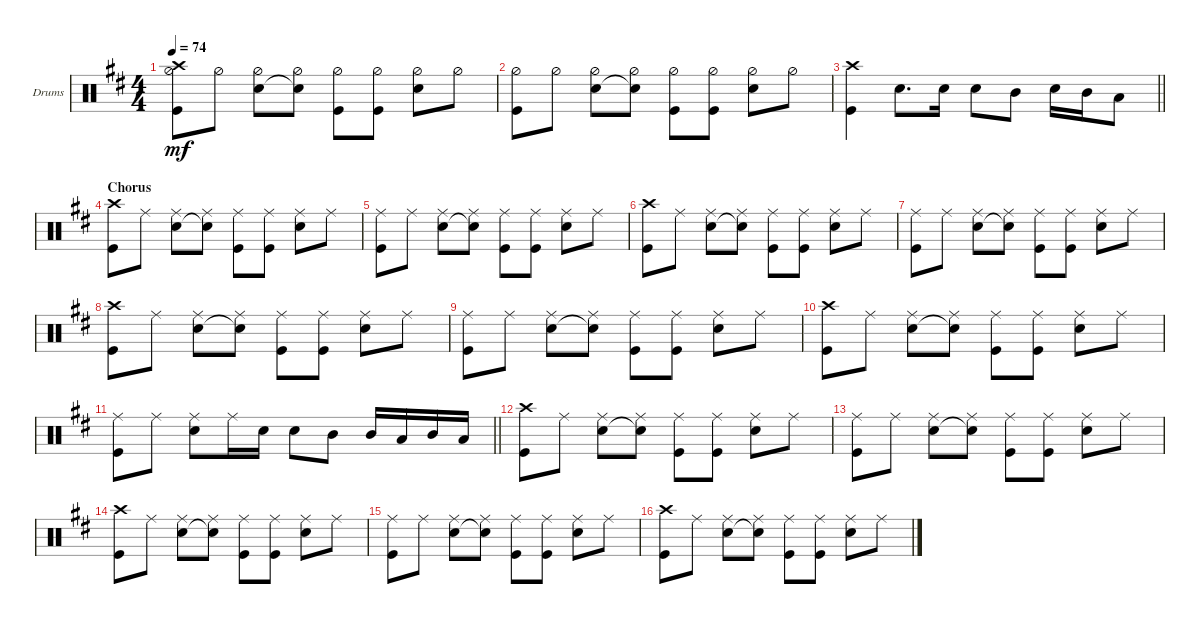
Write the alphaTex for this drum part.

\bracketExtendMode groupsimilarinstruments
\firstSystemTrackNameOrientation horizontal
\otherSystemsTrackNameOrientation horizontal
\track ("Drumkit" "Drums") {instrument percussion}
\staff {score}
\articulation defaults
\ts (4 4)
\tempo 74
\clef neutral
\scale
0.333333
\ks d
("Kick (hit)" "Hi-Hat (half)" "Crash high (hit)").8{dy mf} "Hi-Hat (half)".8 ("Snare (hit) 2" "Hi-Hat (half)").8 ("Snare (hit) 2"{t} "Hi-Hat (half)").8 ("Kick (hit)" "Hi-Hat (half)").8 ("Kick (hit)" "Hi-Hat (half)").8 ("Snare (hit) 2" "Hi-Hat (half)").8 "Hi-Hat (half)".8 |
\scale
0.333333 ("Kick (hit)" "Hi-Hat (half)").8 "Hi-Hat (half)".8 ("Snare (hit) 2" "Hi-Hat (half)").8 ("Snare (hit) 2"{t} "Hi-Hat (half)").8 ("Kick (hit)" "Hi-Hat (half)").8 ("Kick (hit)" "Hi-Hat (half)").8 ("Snare (hit) 2" "Hi-Hat (half)").8 "Hi-Hat (half)".8 |
\scale
0.333333
\barLineRight lightlight
("Kick (hit)" "Crash high (hit)").4 "Snare (hit) 2".8{d} "Snare (hit) 2".16 "Snare (hit) 2".8 "Mid Tom (hit)".8 "Snare (hit) 2".16 "Mid Tom (hit)".16 "Low Tom (hit)".8 |
\section ("" "Chorus")
\scale
0.333333 ("Kick (hit)" "Crash high (hit)").8 "Ride (middle)".8 ("Snare (hit) 2" "Ride (middle)").8 ("Snare (hit) 2"{t} "Ride (middle)").8 ("Kick (hit)" "Ride (middle)").8 ("Kick (hit)" "Ride (middle)").8 ("Snare (hit) 2" "Ride (middle)").8 "Ride (middle)".8 |
\scale
0.333333 ("Kick (hit)" "Ride (middle)").8 "Ride (middle)".8 ("Snare (hit) 2" "Ride (middle)").8 ("Snare (hit) 2"{t} "Ride (middle)").8 ("Kick (hit)" "Ride (middle)").8 ("Kick (hit)" "Ride (middle)").8 ("Snare (hit) 2" "Ride (middle)").8 "Ride (middle)".8 |
\scale
0.333333 ("Kick (hit)" "Crash high (hit)").8 "Ride (middle)".8 ("Snare (hit) 2" "Ride (middle)").8 ("Snare (hit) 2"{t} "Ride (middle)").8 ("Kick (hit)" "Ride (middle)").8 ("Kick (hit)" "Ride (middle)").8 ("Snare (hit) 2" "Ride (middle)").8 "Ride (middle)".8 |
\scale
0.333333 ("Kick (hit)" "Ride (middle)").8 "Ride (middle)".8 ("Snare (hit) 2" "Ride (middle)").8 ("Snare (hit) 2"{t} "Ride (middle)").8 ("Kick (hit)" "Ride (middle)").8 ("Kick (hit)" "Ride (middle)").8 ("Snare (hit) 2" "Ride (middle)").8 "Ride (middle)".8 |
\scale
0.333333 ("Kick (hit)" "Crash high (hit)").8 "Ride (middle)".8 ("Snare (hit) 2" "Ride (middle)").8 ("Snare (hit) 2"{t} "Ride (middle)").8 ("Kick (hit)" "Ride (middle)").8 ("Kick (hit)" "Ride (middle)").8 ("Snare (hit) 2" "Ride (middle)").8 "Ride (middle)".8 |
\scale
0.333333 ("Kick (hit)" "Ride (middle)").8 "Ride (middle)".8 ("Snare (hit) 2" "Ride (middle)").8 ("Snare (hit) 2"{t} "Ride (middle)").8 ("Kick (hit)" "Ride (middle)").8 ("Kick (hit)" "Ride (middle)").8 ("Snare (hit) 2" "Ride (middle)").8 "Ride (middle)".8 |
\scale
0.333333 ("Kick (hit)" "Crash high (hit)").8 "Ride (middle)".8 ("Snare (hit) 2" "Ride (middle)").8 ("Snare (hit) 2"{t} "Ride (middle)").8 ("Kick (hit)" "Ride (middle)").8 ("Kick (hit)" "Ride (middle)").8 ("Snare (hit) 2" "Ride (middle)").8 "Ride (middle)".8 |
\scale
0.333333
\barLineRight lightlight
("Kick (hit)" "Ride (middle)").8 "Ride (middle)".8 ("Snare (hit) 2" "Ride (middle)").8 "Ride (middle)".16 "Snare (hit) 2".16 "Snare (hit) 2".8 "Mid Tom (hit)".8 "Mid Tom (hit)".16 "Low Tom (hit)".16 "Mid Tom (hit)".16 "Low Tom (hit)".16 |
\scale
0.333333 ("Kick (hit)" "Crash high (hit)").8 "Ride (middle)".8 ("Snare (hit) 2" "Ride (middle)").8 ("Snare (hit) 2"{t} "Ride (middle)").8 ("Kick (hit)" "Ride (middle)").8 ("Kick (hit)" "Ride (middle)").8 ("Snare (hit) 2" "Ride (middle)").8 "Ride (middle)".8 |
\scale
0.333333 ("Kick (hit)" "Ride (middle)").8 "Ride (middle)".8 ("Snare (hit) 2" "Ride (middle)").8 ("Snare (hit) 2"{t} "Ride (middle)").8 ("Kick (hit)" "Ride (middle)").8 ("Kick (hit)" "Ride (middle)").8 ("Snare (hit) 2" "Ride (middle)").8 "Ride (middle)".8 |
\scale
0.333333 ("Kick (hit)" "Crash high (hit)").8 "Ride (middle)".8 ("Snare (hit) 2" "Ride (middle)").8 ("Snare (hit) 2"{t} "Ride (middle)").8 ("Kick (hit)" "Ride (middle)").8 ("Kick (hit)" "Ride (middle)").8 ("Snare (hit) 2" "Ride (middle)").8 "Ride (middle)".8 |
\scale
0.333333 ("Kick (hit)" "Ride (middle)").8 "Ride (middle)".8 ("Snare (hit) 2" "Ride (middle)").8 ("Snare (hit) 2"{t} "Ride (middle)").8 ("Kick (hit)" "Ride (middle)").8 ("Kick (hit)" "Ride (middle)").8 ("Snare (hit) 2" "Ride (middle)").8 "Ride (middle)".8 |
\scale
0.333333 ("Kick (hit)" "Crash high (hit)").8 "Ride (middle)".8 ("Snare (hit) 2" "Ride (middle)").8 ("Snare (hit) 2"{t} "Ride (middle)").8 ("Kick (hit)" "Ride (middle)").8 ("Kick (hit)" "Ride (middle)").8 ("Snare (hit) 2" "Ride (middle)").8 "Ride (middle)".8
